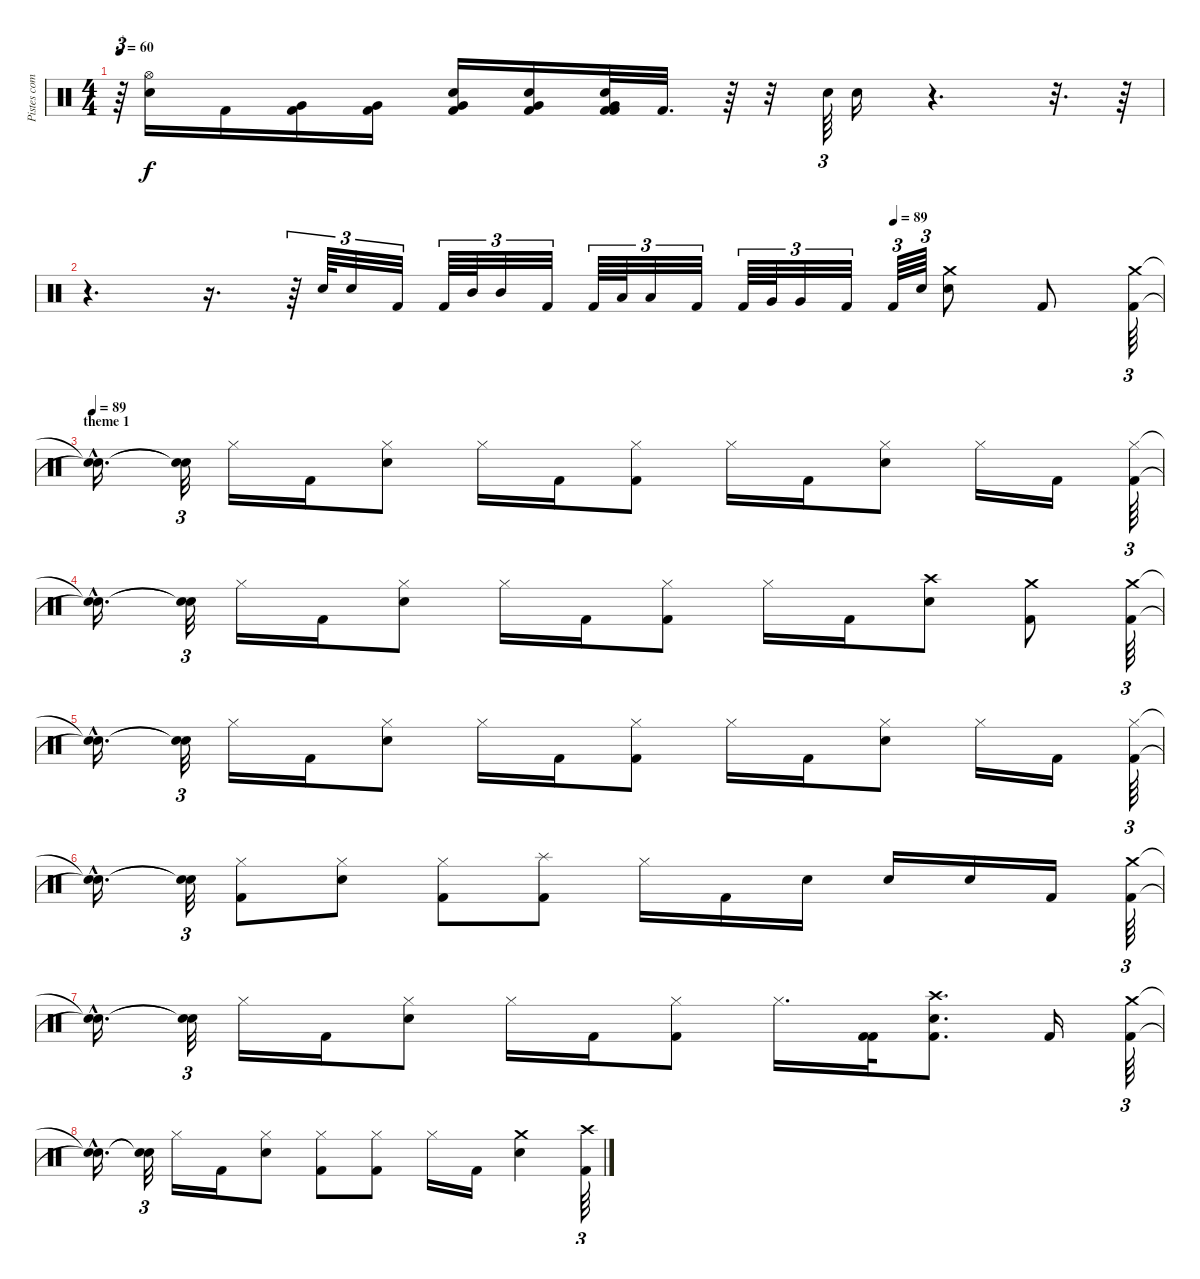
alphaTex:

\track ("Pistes combinées" "Pistes com") {instrument percussion}
\staff {score}
\articulation defaults
\ts (4 4)
\tempo 60
\clef neutral
\ks c
r.64{tu (3 2) dy f} ("Hi-Hat (open)" "Electric Snare (hit)").16 "Kick (hit) 2".16 ("Kick (hit) 2" "Very Low Tom (hit)").16 ("Kick (hit) 2" "Very Low Tom (hit)").16 ("Kick (hit) 2" "Very Low Tom (hit)" "Electric Snare (hit)").16 ("Kick (hit) 2" "Very Low Tom (hit)" "Electric Snare (hit)").16 ("Kick (hit) 2" "Very Low Tom (hit)" "Electric Snare (hit)" "Kick (hit) 2").32 "Kick (hit) 2".32{d} r.64 r.32 "Electric Snare (hit)".64{tu (3 2)} "Electric Snare (hit)".16 r.4{d} r.32{d} r.64 |
\tempo (89 0.75)
r.4{d} r.16{d} r.64{tu (3 2)} "Electric Snare (hit)".64{tu (3 2)} "Electric Snare (hit)".32{tu (3 2)} "Kick (hit) 2".32{tu (3 2)} "Kick (hit) 2".64{tu (3 2)} "Mid Tom (hit)".64{tu (3 2)} "Mid Tom (hit)".32{tu (3 2)} "Kick (hit) 2".32{tu (3 2)} "Kick (hit) 2".64{tu (3 2)} "Low Tom (hit)".64{tu (3 2)} "Low Tom (hit)".32{tu (3 2)} "Kick (hit) 2".32{tu (3 2)} "Kick (hit) 2".64{tu (3 2)} "Very Low Tom (hit)".64{tu (3 2)} "Very Low Tom (hit)".32{tu (3 2)} "Kick (hit) 2".32{tu (3 2)} "Kick (hit) 2".64{tu (3 2)} "Electric Snare (hit)".64{tu (3 2)} ("Crash medium (hit)" "Electric Snare (hit)").8 "Kick (hit) 2".8 ("Crash medium (hit)" "Kick (hit) 2").64{tu (3 2)} |
\section ("" "theme 1")
\tempo 89
("Snare (hit)"{hac t} "Snare (hit)"{hac t}).16{d} ("Snare (hit)"{t} "Snare (hit)"{t}).32{tu (3 2)} "Hi-Hat (closed)".16 "Kick (hit) 2".16 ("Hi-Hat (closed)" "Electric Snare (hit)").8 "Hi-Hat (closed)".16 "Kick (hit) 2".16 ("Hi-Hat (closed)" "Kick (hit) 2").8 "Hi-Hat (closed)".16 "Kick (hit) 2".16 ("Hi-Hat (closed)" "Electric Snare (hit)").8 "Hi-Hat (closed)".16 "Kick (hit) 2".16 ("Hi-Hat (closed)" "Kick (hit) 2").64{tu (3 2)} |
("Snare (hit)"{hac t} "Snare (hit)"{hac t}).16{d} ("Snare (hit)"{t} "Snare (hit)"{t}).32{tu (3 2)} "Hi-Hat (closed)".16 "Kick (hit) 2".16 ("Hi-Hat (closed)" "Electric Snare (hit)").8 "Hi-Hat (closed)".16 "Kick (hit) 2".16 ("Hi-Hat (closed)" "Kick (hit) 2").8 "Hi-Hat (closed)".16 "Kick (hit) 2".16 ("Crash high (hit)" "Electric Snare (hit)").8 ("Crash medium (hit)" "Kick (hit) 2").8 ("Crash medium (hit)" "Kick (hit) 2").64{tu (3 2)} |
("Snare (hit)"{hac t} "Snare (hit)"{hac t}).16{d} ("Snare (hit)"{t} "Snare (hit)"{t}).32{tu (3 2)} "Hi-Hat (closed)".16 "Kick (hit) 2".16 ("Hi-Hat (closed)" "Electric Snare (hit)").8 "Hi-Hat (closed)".16 "Kick (hit) 2".16 ("Hi-Hat (closed)" "Kick (hit) 2").8 "Hi-Hat (closed)".16 "Kick (hit) 2".16 ("Hi-Hat (closed)" "Electric Snare (hit)").8 "Hi-Hat (closed)".16 "Kick (hit) 2".16 ("Hi-Hat (closed)" "Kick (hit) 2").64{tu (3 2)} |
("Snare (hit)"{hac t} "Snare (hit)"{hac t}).16{d} ("Snare (hit)"{t} "Snare (hit)"{t}).32{tu (3 2)} ("Hi-Hat (closed)" "Kick (hit) 2").8 ("Hi-Hat (closed)" "Electric Snare (hit)").8 ("Hi-Hat (closed)" "Kick (hit) 2").8 ("Splash (hit)" "Kick (hit) 2").8 "Hi-Hat (closed)".16 "Kick (hit) 2".16 "Electric Snare (hit)".16 "Electric Snare (hit)".16 "Electric Snare (hit)".16 "Kick (hit) 2".16 ("Crash medium (hit)" "Kick (hit) 2").64{tu (3 2)} |
("Snare (hit)"{hac t} "Snare (hit)"{hac t}).16{d} ("Snare (hit)"{t} "Snare (hit)"{t}).32{tu (3 2)} "Hi-Hat (closed)".16 "Kick (hit) 2".16 ("Hi-Hat (closed)" "Electric Snare (hit)").8 "Hi-Hat (closed)".16 "Kick (hit) 2".16 ("Hi-Hat (closed)" "Kick (hit) 2").8 "Hi-Hat (closed)".16{d} ("Kick (hit) 2" "Kick (hit) 2").32 ("Kick (hit) 2" "Crash high (hit)" "Electric Snare (hit)").8{d} "Kick (hit) 2".16 ("Crash medium (hit)" "Kick (hit) 2").64{tu (3 2)} |
("Snare (hit)"{hac t} "Snare (hit)"{hac t}).16{d} ("Snare (hit)"{t} "Snare (hit)"{t}).32{tu (3 2)} "Hi-Hat (closed)".16 "Kick (hit) 2".16 ("Hi-Hat (closed)" "Electric Snare (hit)").8 ("Hi-Hat (closed)" "Kick (hit) 2").8 ("Hi-Hat (closed)" "Kick (hit) 2").8 "Hi-Hat (closed)".16 "Kick (hit) 2".16 ("Crash medium (hit)" "Electric Snare (hit)").4 ("Crash high (hit)" "Kick (hit) 2").64{tu (3 2)}
